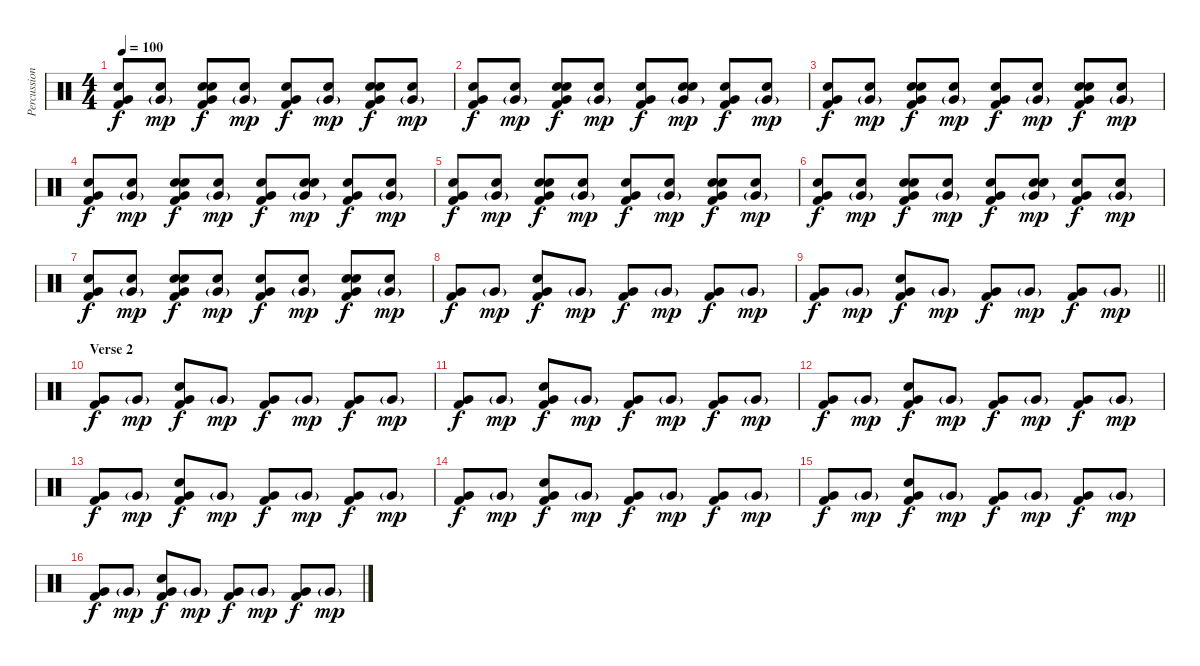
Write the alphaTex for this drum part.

\track ("Percussion" "Percussion") {instrument percussion}
\staff {score}
\articulation defaults
\ts (4 4)
\tempo 100
\clef neutral
\ks c
("Hand Clap (hit)" "Very Low Tom (hit)" "Kick (hit) 2").8{dy f} ("Hand Clap (hit)" "Very Low Tom (hit)"{g}).8{dy mp} ("Hand Clap (hit)" "Snare (hit) 2" "Very Low Tom (hit)" "Kick (hit) 2").8{dy f} ("Hand Clap (hit)" "Very Low Tom (hit)"{g}).8{dy mp} ("Hand Clap (hit)" "Very Low Tom (hit)" "Kick (hit) 2").8{dy f} ("Hand Clap (hit)" "Very Low Tom (hit)"{g}).8{dy mp} ("Hand Clap (hit)" "Snare (hit) 2" "Very Low Tom (hit)" "Kick (hit) 2").8{dy f} ("Hand Clap (hit)" "Very Low Tom (hit)"{g}).8{dy mp} |
("Hand Clap (hit)" "Very Low Tom (hit)" "Kick (hit) 2").8{dy f} ("Hand Clap (hit)" "Very Low Tom (hit)"{g}).8{dy mp} ("Hand Clap (hit)" "Snare (hit) 2" "Very Low Tom (hit)" "Kick (hit) 2").8{dy f} ("Hand Clap (hit)" "Very Low Tom (hit)"{g}).8{dy mp} ("Hand Clap (hit)" "Very Low Tom (hit)" "Kick (hit) 2").8{dy f} ("Hand Clap (hit)" "Snare (hit) 2" "Very Low Tom (hit)"{g}).8{dy mp} ("Hand Clap (hit)" "Very Low Tom (hit)" "Kick (hit) 2").8{dy f} ("Hand Clap (hit)" "Very Low Tom (hit)"{g}).8{dy mp} |
("Hand Clap (hit)" "Very Low Tom (hit)" "Kick (hit) 2").8{dy f} ("Hand Clap (hit)" "Very Low Tom (hit)"{g}).8{dy mp} ("Hand Clap (hit)" "Snare (hit) 2" "Very Low Tom (hit)" "Kick (hit) 2").8{dy f} ("Hand Clap (hit)" "Very Low Tom (hit)"{g}).8{dy mp} ("Hand Clap (hit)" "Very Low Tom (hit)" "Kick (hit) 2").8{dy f} ("Hand Clap (hit)" "Very Low Tom (hit)"{g}).8{dy mp} ("Hand Clap (hit)" "Snare (hit) 2" "Very Low Tom (hit)" "Kick (hit) 2").8{dy f} ("Hand Clap (hit)" "Very Low Tom (hit)"{g}).8{dy mp} |
("Hand Clap (hit)" "Very Low Tom (hit)" "Kick (hit) 2").8{dy f} ("Hand Clap (hit)" "Very Low Tom (hit)"{g}).8{dy mp} ("Hand Clap (hit)" "Snare (hit) 2" "Very Low Tom (hit)" "Kick (hit) 2").8{dy f} ("Hand Clap (hit)" "Very Low Tom (hit)"{g}).8{dy mp} ("Hand Clap (hit)" "Very Low Tom (hit)" "Kick (hit) 2").8{dy f} ("Hand Clap (hit)" "Snare (hit) 2" "Very Low Tom (hit)"{g}).8{dy mp} ("Hand Clap (hit)" "Very Low Tom (hit)" "Kick (hit) 2").8{dy f} ("Hand Clap (hit)" "Very Low Tom (hit)"{g}).8{dy mp} |
("Hand Clap (hit)" "Very Low Tom (hit)" "Kick (hit) 2").8{dy f} ("Hand Clap (hit)" "Very Low Tom (hit)"{g}).8{dy mp} ("Hand Clap (hit)" "Snare (hit) 2" "Very Low Tom (hit)" "Kick (hit) 2").8{dy f} ("Hand Clap (hit)" "Very Low Tom (hit)"{g}).8{dy mp} ("Hand Clap (hit)" "Very Low Tom (hit)" "Kick (hit) 2").8{dy f} ("Hand Clap (hit)" "Very Low Tom (hit)"{g}).8{dy mp} ("Hand Clap (hit)" "Snare (hit) 2" "Very Low Tom (hit)" "Kick (hit) 2").8{dy f} ("Hand Clap (hit)" "Very Low Tom (hit)"{g}).8{dy mp} |
("Hand Clap (hit)" "Very Low Tom (hit)" "Kick (hit) 2").8{dy f} ("Hand Clap (hit)" "Very Low Tom (hit)"{g}).8{dy mp} ("Hand Clap (hit)" "Snare (hit) 2" "Very Low Tom (hit)" "Kick (hit) 2").8{dy f} ("Hand Clap (hit)" "Very Low Tom (hit)"{g}).8{dy mp} ("Hand Clap (hit)" "Very Low Tom (hit)" "Kick (hit) 2").8{dy f} ("Hand Clap (hit)" "Snare (hit) 2" "Very Low Tom (hit)"{g}).8{dy mp} ("Hand Clap (hit)" "Very Low Tom (hit)" "Kick (hit) 2").8{dy f} ("Hand Clap (hit)" "Very Low Tom (hit)"{g}).8{dy mp} |
("Hand Clap (hit)" "Very Low Tom (hit)" "Kick (hit) 2").8{dy f} ("Hand Clap (hit)" "Very Low Tom (hit)"{g}).8{dy mp} ("Hand Clap (hit)" "Snare (hit) 2" "Very Low Tom (hit)" "Kick (hit) 2").8{dy f} ("Hand Clap (hit)" "Very Low Tom (hit)"{g}).8{dy mp} ("Hand Clap (hit)" "Very Low Tom (hit)" "Kick (hit) 2").8{dy f} ("Hand Clap (hit)" "Very Low Tom (hit)"{g}).8{dy mp} ("Hand Clap (hit)" "Snare (hit) 2" "Very Low Tom (hit)" "Kick (hit) 2").8{dy f} ("Hand Clap (hit)" "Very Low Tom (hit)"{g}).8{dy mp} |
("Very Low Tom (hit)" "Kick (hit) 2").8{dy f} "Very Low Tom (hit)"{g}.8{dy mp} ("Snare (hit) 2" "Very Low Tom (hit)" "Kick (hit) 2").8{dy f} "Very Low Tom (hit)"{g}.8{dy mp} ("Very Low Tom (hit)" "Kick (hit) 2").8{dy f} "Very Low Tom (hit)"{g}.8{dy mp} ("Very Low Tom (hit)" "Kick (hit) 2").8{dy f} "Very Low Tom (hit)"{g}.8{dy mp} |
\barLineRight lightlight
("Very Low Tom (hit)" "Kick (hit) 2").8{dy f} "Very Low Tom (hit)"{g}.8{dy mp} ("Snare (hit) 2" "Very Low Tom (hit)" "Kick (hit) 2").8{dy f} "Very Low Tom (hit)"{g}.8{dy mp} ("Very Low Tom (hit)" "Kick (hit) 2").8{dy f} "Very Low Tom (hit)"{g}.8{dy mp} ("Very Low Tom (hit)" "Kick (hit) 2").8{dy f} "Very Low Tom (hit)"{g}.8{dy mp} |
\section ("" "Verse 2")
("Very Low Tom (hit)" "Kick (hit) 2").8{dy f} "Very Low Tom (hit)"{g}.8{dy mp} ("Snare (hit) 2" "Very Low Tom (hit)" "Kick (hit) 2").8{dy f} "Very Low Tom (hit)"{g}.8{dy mp} ("Very Low Tom (hit)" "Kick (hit) 2").8{dy f} "Very Low Tom (hit)"{g}.8{dy mp} ("Very Low Tom (hit)" "Kick (hit) 2").8{dy f} "Very Low Tom (hit)"{g}.8{dy mp} |
("Very Low Tom (hit)" "Kick (hit) 2").8{dy f} "Very Low Tom (hit)"{g}.8{dy mp} ("Snare (hit) 2" "Very Low Tom (hit)" "Kick (hit) 2").8{dy f} "Very Low Tom (hit)"{g}.8{dy mp} ("Very Low Tom (hit)" "Kick (hit) 2").8{dy f} "Very Low Tom (hit)"{g}.8{dy mp} ("Very Low Tom (hit)" "Kick (hit) 2").8{dy f} "Very Low Tom (hit)"{g}.8{dy mp} |
("Very Low Tom (hit)" "Kick (hit) 2").8{dy f} "Very Low Tom (hit)"{g}.8{dy mp} ("Snare (hit) 2" "Very Low Tom (hit)" "Kick (hit) 2").8{dy f} "Very Low Tom (hit)"{g}.8{dy mp} ("Very Low Tom (hit)" "Kick (hit) 2").8{dy f} "Very Low Tom (hit)"{g}.8{dy mp} ("Very Low Tom (hit)" "Kick (hit) 2").8{dy f} "Very Low Tom (hit)"{g}.8{dy mp} |
("Very Low Tom (hit)" "Kick (hit) 2").8{dy f} "Very Low Tom (hit)"{g}.8{dy mp} ("Snare (hit) 2" "Very Low Tom (hit)" "Kick (hit) 2").8{dy f} "Very Low Tom (hit)"{g}.8{dy mp} ("Very Low Tom (hit)" "Kick (hit) 2").8{dy f} "Very Low Tom (hit)"{g}.8{dy mp} ("Very Low Tom (hit)" "Kick (hit) 2").8{dy f} "Very Low Tom (hit)"{g}.8{dy mp} |
("Very Low Tom (hit)" "Kick (hit) 2").8{dy f} "Very Low Tom (hit)"{g}.8{dy mp} ("Snare (hit) 2" "Very Low Tom (hit)" "Kick (hit) 2").8{dy f} "Very Low Tom (hit)"{g}.8{dy mp} ("Very Low Tom (hit)" "Kick (hit) 2").8{dy f} "Very Low Tom (hit)"{g}.8{dy mp} ("Very Low Tom (hit)" "Kick (hit) 2").8{dy f} "Very Low Tom (hit)"{g}.8{dy mp} |
("Very Low Tom (hit)" "Kick (hit) 2").8{dy f} "Very Low Tom (hit)"{g}.8{dy mp} ("Snare (hit) 2" "Very Low Tom (hit)" "Kick (hit) 2").8{dy f} "Very Low Tom (hit)"{g}.8{dy mp} ("Very Low Tom (hit)" "Kick (hit) 2").8{dy f} "Very Low Tom (hit)"{g}.8{dy mp} ("Very Low Tom (hit)" "Kick (hit) 2").8{dy f} "Very Low Tom (hit)"{g}.8{dy mp} |
("Very Low Tom (hit)" "Kick (hit) 2").8{dy f} "Very Low Tom (hit)"{g}.8{dy mp} ("Snare (hit) 2" "Very Low Tom (hit)" "Kick (hit) 2").8{dy f} "Very Low Tom (hit)"{g}.8{dy mp} ("Very Low Tom (hit)" "Kick (hit) 2").8{dy f} "Very Low Tom (hit)"{g}.8{dy mp} ("Very Low Tom (hit)" "Kick (hit) 2").8{dy f} "Very Low Tom (hit)"{g}.8{dy mp}
